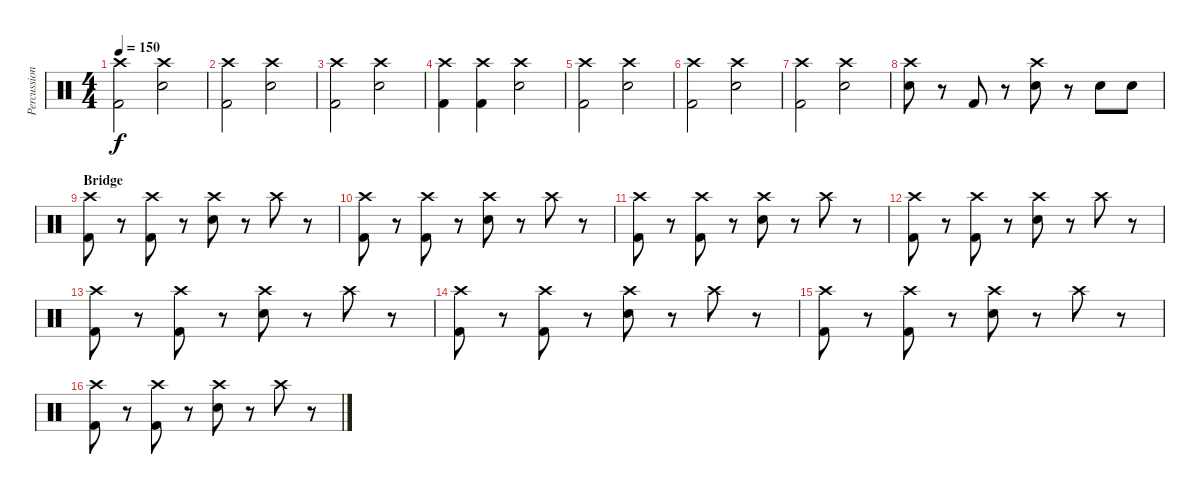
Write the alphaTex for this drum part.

\track ("Percussion [Patrick Wilson]" "Percussion") {instrument percussion}
\staff {score}
\articulation defaults
\ts (4 4)
\tempo 150
\clef neutral
\ks c
("Crash high (hit)" "Kick (hit) 2").2{dy f volume 13} ("Crash high (hit)" "Snare (hit) 2").2 |
("Crash high (hit)" "Kick (hit) 2").2 ("Crash high (hit)" "Snare (hit) 2").2 |
("Crash high (hit)" "Kick (hit) 2").2 ("Crash high (hit)" "Snare (hit) 2").2 |
("Crash high (hit)" "Kick (hit) 2").4 ("Crash high (hit)" "Kick (hit) 2").4 ("Crash high (hit)" "Snare (hit) 2").2 |
("Crash high (hit)" "Kick (hit) 2").2{volume 13} ("Crash high (hit)" "Snare (hit) 2").2 |
("Crash high (hit)" "Kick (hit) 2").2 ("Crash high (hit)" "Snare (hit) 2").2 |
("Crash high (hit)" "Kick (hit) 2").2 ("Crash high (hit)" "Snare (hit) 2").2 |
("Crash high (hit)" "Snare (hit) 2").8 r.8 "Kick (hit) 2".8 r.8 ("Crash high (hit)" "Snare (hit) 2").8 r.8 "Snare (hit) 2".8 "Snare (hit) 2".8 |
\section ("" "Bridge")
("Crash high (hit)" "Kick (hit) 2").8{volume 13} r.8 ("Crash high (hit)" "Kick (hit) 2").8 r.8 ("Crash high (hit)" "Snare (hit) 2").8 r.8 "Crash high (hit)".8 r.8 |
("Crash high (hit)" "Kick (hit) 2").8 r.8 ("Crash high (hit)" "Kick (hit) 2").8 r.8 ("Crash high (hit)" "Snare (hit) 2").8 r.8 "Crash high (hit)".8 r.8 |
("Crash high (hit)" "Kick (hit) 2").8 r.8 ("Crash high (hit)" "Kick (hit) 2").8 r.8 ("Crash high (hit)" "Snare (hit) 2").8 r.8 "Crash high (hit)".8 r.8 |
("Crash high (hit)" "Kick (hit) 2").8 r.8 ("Crash high (hit)" "Kick (hit) 2").8 r.8 ("Crash high (hit)" "Snare (hit) 2").8 r.8 "Crash high (hit)".8 r.8 |
("Crash high (hit)" "Kick (hit) 2").8{volume 13} r.8 ("Crash high (hit)" "Kick (hit) 2").8 r.8 ("Crash high (hit)" "Snare (hit) 2").8 r.8 "Crash high (hit)".8 r.8 |
("Crash high (hit)" "Kick (hit) 2").8 r.8 ("Crash high (hit)" "Kick (hit) 2").8 r.8 ("Crash high (hit)" "Snare (hit) 2").8 r.8 "Crash high (hit)".8 r.8 |
("Crash high (hit)" "Kick (hit) 2").8 r.8 ("Crash high (hit)" "Kick (hit) 2").8 r.8 ("Crash high (hit)" "Snare (hit) 2").8 r.8 "Crash high (hit)".8 r.8 |
("Crash high (hit)" "Kick (hit) 2").8 r.8 ("Crash high (hit)" "Kick (hit) 2").8 r.8 ("Crash high (hit)" "Snare (hit) 2").8 r.8 "Crash high (hit)".8 r.8
